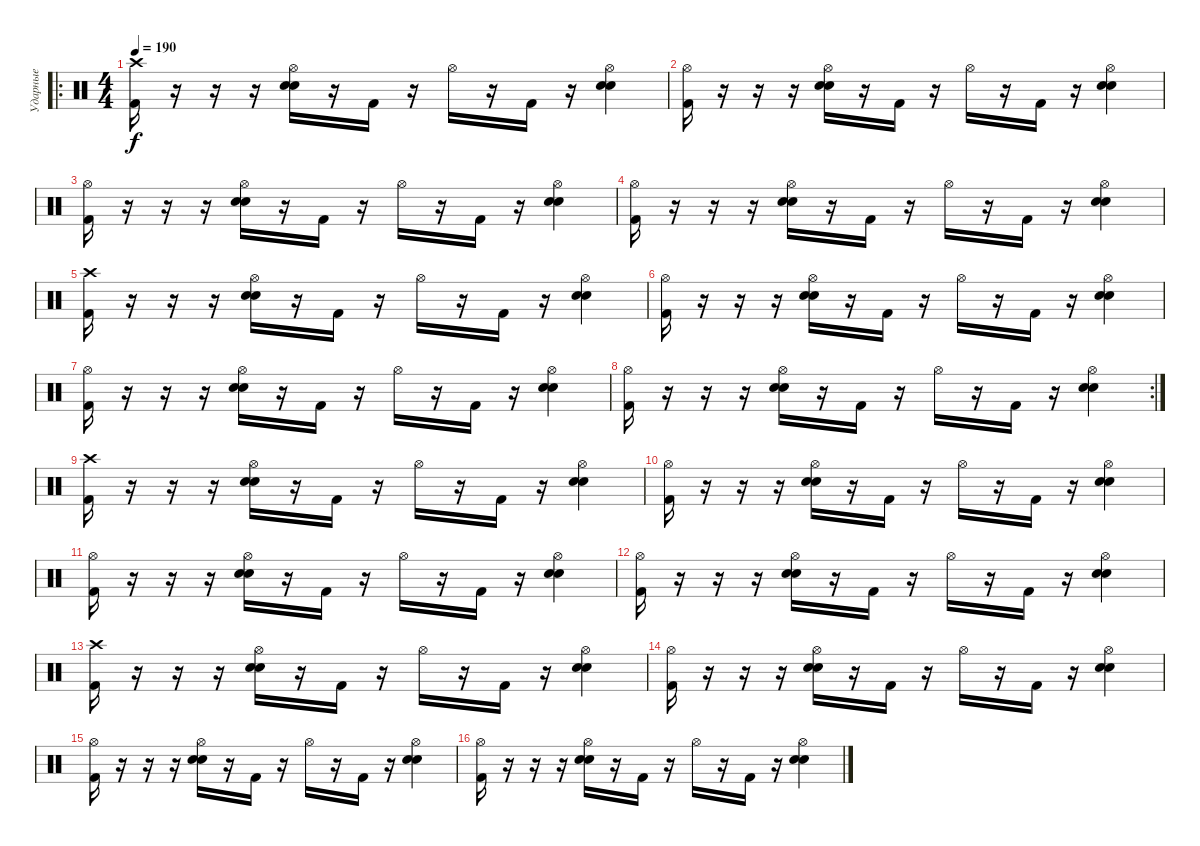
\track ("Ударные" "Ударные") {instrument percussion}
\staff {score}
\articulation defaults
\ro
\ts (4 4)
\tempo 190
\clef neutral
\ks c
("Crash high (hit)" "Kick (hit) 2").16{dy f} r.16 r.16 r.16 ("Hi-Hat (open)" "Electric Snare (hit)" "Snare (hit) 2").16 r.16 "Kick (hit) 2".16 r.16 "Hi-Hat (open)".16 r.16 "Kick (hit) 2".16 r.16 ("Hi-Hat (open)" "Electric Snare (hit)" "Snare (hit) 2").4 |
("Hi-Hat (open)" "Kick (hit) 2").16 r.16 r.16 r.16 ("Hi-Hat (open)" "Electric Snare (hit)" "Snare (hit) 2").16 r.16 "Kick (hit) 2".16 r.16 "Hi-Hat (open)".16 r.16 "Kick (hit) 2".16 r.16 ("Hi-Hat (open)" "Electric Snare (hit)" "Snare (hit) 2").4 |
("Hi-Hat (open)" "Kick (hit) 2").16 r.16 r.16 r.16 ("Hi-Hat (open)" "Electric Snare (hit)" "Snare (hit) 2").16 r.16 "Kick (hit) 2".16 r.16 "Hi-Hat (open)".16 r.16 "Kick (hit) 2".16 r.16 ("Hi-Hat (open)" "Electric Snare (hit)" "Snare (hit) 2").4 |
("Hi-Hat (open)" "Kick (hit) 2").16 r.16 r.16 r.16 ("Hi-Hat (open)" "Electric Snare (hit)" "Snare (hit) 2").16 r.16 "Kick (hit) 2".16 r.16 "Hi-Hat (open)".16 r.16 "Kick (hit) 2".16 r.16 ("Hi-Hat (open)" "Electric Snare (hit)" "Snare (hit) 2").4 |
("Crash high (hit)" "Kick (hit) 2").16 r.16 r.16 r.16 ("Hi-Hat (open)" "Electric Snare (hit)" "Snare (hit) 2").16 r.16 "Kick (hit) 2".16 r.16 "Hi-Hat (open)".16 r.16 "Kick (hit) 2".16 r.16 ("Hi-Hat (open)" "Electric Snare (hit)" "Snare (hit) 2").4 |
("Hi-Hat (open)" "Kick (hit) 2").16 r.16 r.16 r.16 ("Hi-Hat (open)" "Electric Snare (hit)" "Snare (hit) 2").16 r.16 "Kick (hit) 2".16 r.16 "Hi-Hat (open)".16 r.16 "Kick (hit) 2".16 r.16 ("Hi-Hat (open)" "Electric Snare (hit)" "Snare (hit) 2").4 |
("Hi-Hat (open)" "Kick (hit) 2").16 r.16 r.16 r.16 ("Hi-Hat (open)" "Electric Snare (hit)" "Snare (hit) 2").16 r.16 "Kick (hit) 2".16 r.16 "Hi-Hat (open)".16 r.16 "Kick (hit) 2".16 r.16 ("Hi-Hat (open)" "Electric Snare (hit)" "Snare (hit) 2").4 |
\rc 2
("Hi-Hat (open)" "Kick (hit) 2").16 r.16 r.16 r.16 ("Hi-Hat (open)" "Electric Snare (hit)" "Snare (hit) 2").16 r.16 "Kick (hit) 2".16 r.16 "Hi-Hat (open)".16 r.16 "Kick (hit) 2".16 r.16 ("Hi-Hat (open)" "Electric Snare (hit)" "Snare (hit) 2").4 |
("Crash high (hit)" "Kick (hit) 2").16 r.16 r.16 r.16 ("Hi-Hat (open)" "Electric Snare (hit)" "Snare (hit) 2").16 r.16 "Kick (hit) 2".16 r.16 "Hi-Hat (open)".16 r.16 "Kick (hit) 2".16 r.16 ("Hi-Hat (open)" "Electric Snare (hit)" "Snare (hit) 2").4 |
("Hi-Hat (open)" "Kick (hit) 2").16 r.16 r.16 r.16 ("Hi-Hat (open)" "Electric Snare (hit)" "Snare (hit) 2").16 r.16 "Kick (hit) 2".16 r.16 "Hi-Hat (open)".16 r.16 "Kick (hit) 2".16 r.16 ("Hi-Hat (open)" "Electric Snare (hit)" "Snare (hit) 2").4 |
("Hi-Hat (open)" "Kick (hit) 2").16 r.16 r.16 r.16 ("Hi-Hat (open)" "Electric Snare (hit)" "Snare (hit) 2").16 r.16 "Kick (hit) 2".16 r.16 "Hi-Hat (open)".16 r.16 "Kick (hit) 2".16 r.16 ("Hi-Hat (open)" "Electric Snare (hit)" "Snare (hit) 2").4 |
("Hi-Hat (open)" "Kick (hit) 2").16 r.16 r.16 r.16 ("Hi-Hat (open)" "Electric Snare (hit)" "Snare (hit) 2").16 r.16 "Kick (hit) 2".16 r.16 "Hi-Hat (open)".16 r.16 "Kick (hit) 2".16 r.16 ("Hi-Hat (open)" "Electric Snare (hit)" "Snare (hit) 2").4 |
("Crash high (hit)" "Kick (hit) 2").16 r.16 r.16 r.16 ("Hi-Hat (open)" "Electric Snare (hit)" "Snare (hit) 2").16 r.16 "Kick (hit) 2".16 r.16 "Hi-Hat (open)".16 r.16 "Kick (hit) 2".16 r.16 ("Hi-Hat (open)" "Electric Snare (hit)" "Snare (hit) 2").4 |
("Hi-Hat (open)" "Kick (hit) 2").16 r.16 r.16 r.16 ("Hi-Hat (open)" "Electric Snare (hit)" "Snare (hit) 2").16 r.16 "Kick (hit) 2".16 r.16 "Hi-Hat (open)".16 r.16 "Kick (hit) 2".16 r.16 ("Hi-Hat (open)" "Electric Snare (hit)" "Snare (hit) 2").4 |
("Hi-Hat (open)" "Kick (hit) 2").16 r.16 r.16 r.16 ("Hi-Hat (open)" "Electric Snare (hit)" "Snare (hit) 2").16 r.16 "Kick (hit) 2".16 r.16 "Hi-Hat (open)".16 r.16 "Kick (hit) 2".16 r.16 ("Hi-Hat (open)" "Electric Snare (hit)" "Snare (hit) 2").4 |
("Hi-Hat (open)" "Kick (hit) 2").16 r.16 r.16 r.16 ("Hi-Hat (open)" "Electric Snare (hit)" "Snare (hit) 2").16 r.16 "Kick (hit) 2".16 r.16 "Hi-Hat (open)".16 r.16 "Kick (hit) 2".16 r.16 ("Hi-Hat (open)" "Electric Snare (hit)" "Snare (hit) 2").4
